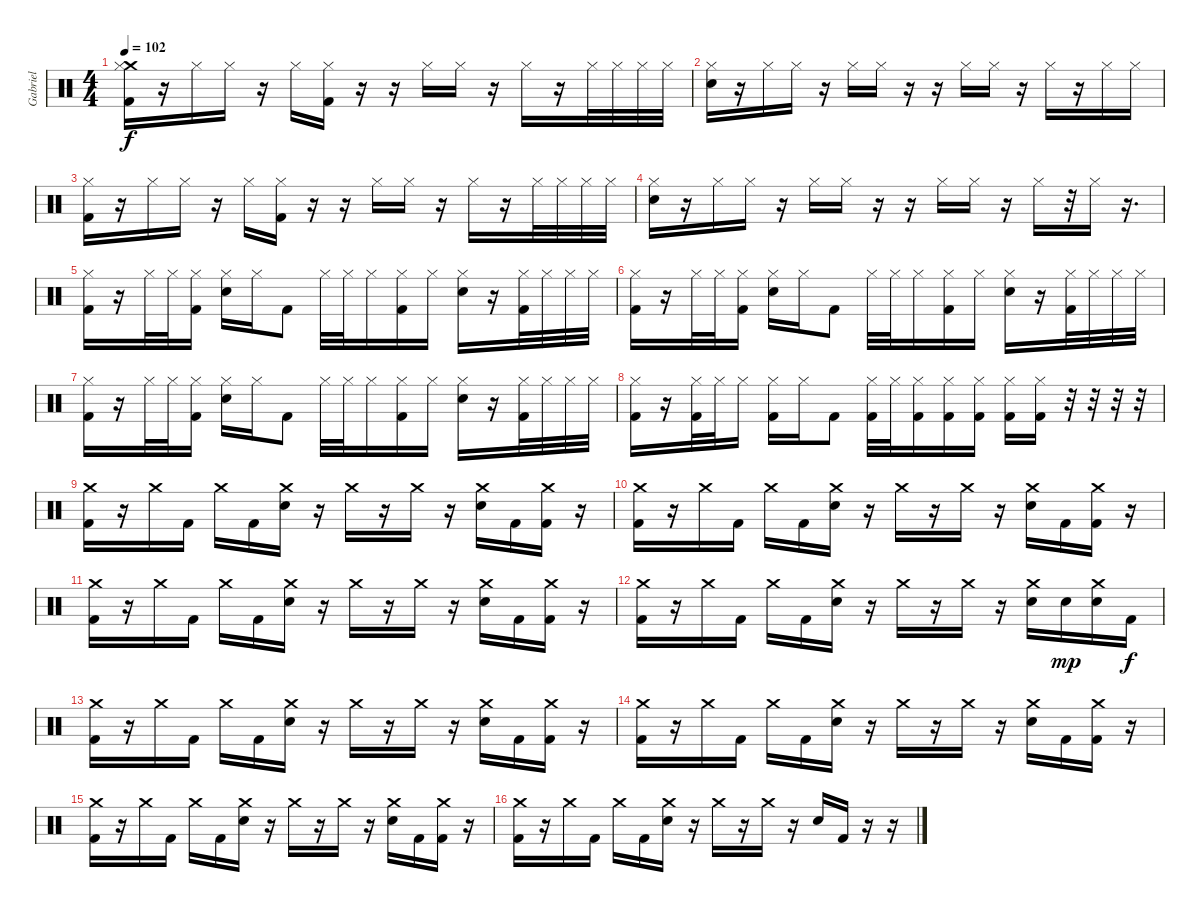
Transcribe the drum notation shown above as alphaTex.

\track ("Gabriel" "Gabriel") {instrument percussion}
\staff {score}
\articulation defaults
\ts (4 4)
\tempo 102
\clef neutral
\ks c
("Crash medium (hit)" "Hi-Hat (closed)" "Kick (hit) 2").16{dy f} r.16 "Hi-Hat (closed)".16 "Hi-Hat (closed)".16 r.16 "Hi-Hat (closed)".16 ("Hi-Hat (closed)" "Kick (hit) 2").16 r.16 r.16 "Hi-Hat (closed)".16 "Hi-Hat (closed)".16 r.16 "Hi-Hat (closed)".16 r.16 "Hi-Hat (closed)".32 "Hi-Hat (closed)".32 "Hi-Hat (closed)".32 "Hi-Hat (closed)".32 |
("Hi-Hat (closed)" "Snare (hit) 2").16 r.16 "Hi-Hat (closed)".16 "Hi-Hat (closed)".16 r.16 "Hi-Hat (closed)".16 "Hi-Hat (closed)".16 r.16 r.16 "Hi-Hat (closed)".16 "Hi-Hat (closed)".16 r.16 "Hi-Hat (closed)".16 r.16 "Hi-Hat (closed)".16 "Hi-Hat (closed)".16 |
("Hi-Hat (closed)" "Kick (hit) 2").16 r.16 "Hi-Hat (closed)".16 "Hi-Hat (closed)".16 r.16 "Hi-Hat (closed)".16 ("Hi-Hat (closed)" "Kick (hit) 2").16 r.16 r.16 "Hi-Hat (closed)".16 "Hi-Hat (closed)".16 r.16 "Hi-Hat (closed)".16 r.16 "Hi-Hat (closed)".32 "Hi-Hat (closed)".32 "Hi-Hat (closed)".32 "Hi-Hat (closed)".32 |
("Hi-Hat (closed)" "Snare (hit) 2").16 r.16 "Hi-Hat (closed)".16 "Hi-Hat (closed)".16 r.16 "Hi-Hat (closed)".16 "Hi-Hat (closed)".16 r.16 r.16 "Hi-Hat (closed)".16 "Hi-Hat (closed)".16 r.16 "Hi-Hat (closed)".16 r.32 "Hi-Hat (closed)".16 r.16{d} |
("Hi-Hat (closed)" "Kick (hit) 2").16 r.16 "Hi-Hat (closed)".32 "Hi-Hat (closed)".32 ("Hi-Hat (closed)" "Kick (hit) 2").16 ("Hi-Hat (closed)" "Snare (hit) 2").16 "Hi-Hat (closed)".16 "Kick (hit) 2".8 "Hi-Hat (closed)".32 "Hi-Hat (closed)".32 "Hi-Hat (closed)".16 ("Hi-Hat (closed)" "Kick (hit) 2").16 "Hi-Hat (closed)".16 ("Hi-Hat (closed)" "Snare (hit) 2").16 r.16 ("Hi-Hat (closed)" "Kick (hit) 2").32 "Hi-Hat (closed)".32 "Hi-Hat (closed)".32 "Hi-Hat (closed)".32 |
("Hi-Hat (closed)" "Kick (hit) 2").16 r.16 "Hi-Hat (closed)".32 "Hi-Hat (closed)".32 ("Hi-Hat (closed)" "Kick (hit) 2").16 ("Hi-Hat (closed)" "Snare (hit) 2").16 "Hi-Hat (closed)".16 "Kick (hit) 2".8 "Hi-Hat (closed)".32 "Hi-Hat (closed)".32 "Hi-Hat (closed)".16 ("Hi-Hat (closed)" "Kick (hit) 2").16 "Hi-Hat (closed)".16 ("Hi-Hat (closed)" "Snare (hit) 2").16 r.16 ("Hi-Hat (closed)" "Kick (hit) 2").32 "Hi-Hat (closed)".32 "Hi-Hat (closed)".32 "Hi-Hat (closed)".32 |
("Hi-Hat (closed)" "Kick (hit) 2").16 r.16 "Hi-Hat (closed)".32 "Hi-Hat (closed)".32 ("Hi-Hat (closed)" "Kick (hit) 2").16 ("Hi-Hat (closed)" "Snare (hit) 2").16 "Hi-Hat (closed)".16 "Kick (hit) 2".8 "Hi-Hat (closed)".32 "Hi-Hat (closed)".32 "Hi-Hat (closed)".16 ("Hi-Hat (closed)" "Kick (hit) 2").16 "Hi-Hat (closed)".16 ("Hi-Hat (closed)" "Snare (hit) 2").16 r.16 ("Hi-Hat (closed)" "Kick (hit) 2").32 "Hi-Hat (closed)".32 "Hi-Hat (closed)".32 "Hi-Hat (closed)".32 |
("Hi-Hat (closed)" "Kick (hit) 2").16 r.16 ("Hi-Hat (closed)" "Kick (hit) 2").32 "Hi-Hat (closed)".32 "Hi-Hat (closed)".16 ("Hi-Hat (closed)" "Kick (hit) 2").16 "Hi-Hat (closed)".16 "Kick (hit) 2".8 ("Hi-Hat (closed)" "Kick (hit) 2").32 "Hi-Hat (closed)".32 ("Hi-Hat (closed)" "Kick (hit) 2").16 ("Hi-Hat (closed)" "Kick (hit) 2").16 ("Hi-Hat (closed)" "Kick (hit) 2").16 ("Hi-Hat (closed)" "Kick (hit) 2").16 ("Hi-Hat (closed)" "Kick (hit) 2").16 r.32 r.32 r.32 r.32 |
("Crash medium (hit)" "Kick (hit) 2").16 r.16 "Crash medium (hit)".16 "Kick (hit) 2".16 "Crash medium (hit)".16 "Kick (hit) 2".16 ("Crash medium (hit)" "Electric Snare (hit)").16 r.16 "Crash medium (hit)".16 r.16 "Crash medium (hit)".16 r.16 ("Crash medium (hit)" "Electric Snare (hit)").16 "Kick (hit) 2".16 ("Crash medium (hit)" "Kick (hit) 2").16 r.16 |
("Crash medium (hit)" "Kick (hit) 2").16 r.16 "Crash medium (hit)".16 "Kick (hit) 2".16 "Crash medium (hit)".16 "Kick (hit) 2".16 ("Crash medium (hit)" "Electric Snare (hit)").16 r.16 "Crash medium (hit)".16 r.16 "Crash medium (hit)".16 r.16 ("Crash medium (hit)" "Electric Snare (hit)").16 "Kick (hit) 2".16 ("Crash medium (hit)" "Kick (hit) 2").16 r.16 |
("Crash medium (hit)" "Kick (hit) 2").16 r.16 "Crash medium (hit)".16 "Kick (hit) 2".16 "Crash medium (hit)".16 "Kick (hit) 2".16 ("Crash medium (hit)" "Electric Snare (hit)").16 r.16 "Crash medium (hit)".16 r.16 "Crash medium (hit)".16 r.16 ("Crash medium (hit)" "Electric Snare (hit)").16 "Kick (hit) 2".16 ("Crash medium (hit)" "Kick (hit) 2").16 r.16 |
("Crash medium (hit)" "Kick (hit) 2").16 r.16 "Crash medium (hit)".16 "Kick (hit) 2".16 "Crash medium (hit)".16 "Kick (hit) 2".16 ("Crash medium (hit)" "Electric Snare (hit)").16 r.16 "Crash medium (hit)".16 r.16 "Crash medium (hit)".16 r.16 ("Crash medium (hit)" "Electric Snare (hit)").16 "Electric Snare (hit)".16{dy mp} ("Crash medium (hit)" "Electric Snare (hit)").16 "Kick (hit) 2".16{dy f} |
("Crash medium (hit)" "Kick (hit) 2").16 r.16 "Crash medium (hit)".16 "Kick (hit) 2".16 "Crash medium (hit)".16 "Kick (hit) 2".16 ("Crash medium (hit)" "Electric Snare (hit)").16 r.16 "Crash medium (hit)".16 r.16 "Crash medium (hit)".16 r.16 ("Crash medium (hit)" "Electric Snare (hit)").16 "Kick (hit) 2".16 ("Crash medium (hit)" "Kick (hit) 2").16 r.16 |
("Crash medium (hit)" "Kick (hit) 2").16 r.16 "Crash medium (hit)".16 "Kick (hit) 2".16 "Crash medium (hit)".16 "Kick (hit) 2".16 ("Crash medium (hit)" "Electric Snare (hit)").16 r.16 "Crash medium (hit)".16 r.16 "Crash medium (hit)".16 r.16 ("Crash medium (hit)" "Electric Snare (hit)").16 "Kick (hit) 2".16 ("Crash medium (hit)" "Kick (hit) 2").16 r.16 |
("Crash medium (hit)" "Kick (hit) 2").16 r.16 "Crash medium (hit)".16 "Kick (hit) 2".16 "Crash medium (hit)".16 "Kick (hit) 2".16 ("Crash medium (hit)" "Electric Snare (hit)").16 r.16 "Crash medium (hit)".16 r.16 "Crash medium (hit)".16 r.16 ("Crash medium (hit)" "Electric Snare (hit)").16 "Kick (hit) 2".16 ("Crash medium (hit)" "Kick (hit) 2").16 r.16 |
("Crash medium (hit)" "Kick (hit) 2").16 r.16 "Crash medium (hit)".16 "Kick (hit) 2".16 "Crash medium (hit)".16 "Kick (hit) 2".16 ("Crash medium (hit)" "Electric Snare (hit)").16 r.16 "Crash medium (hit)".16 r.16 "Crash medium (hit)".16 r.16 "Electric Snare (hit)".16 "Kick (hit) 2".16 r.16 r.16
